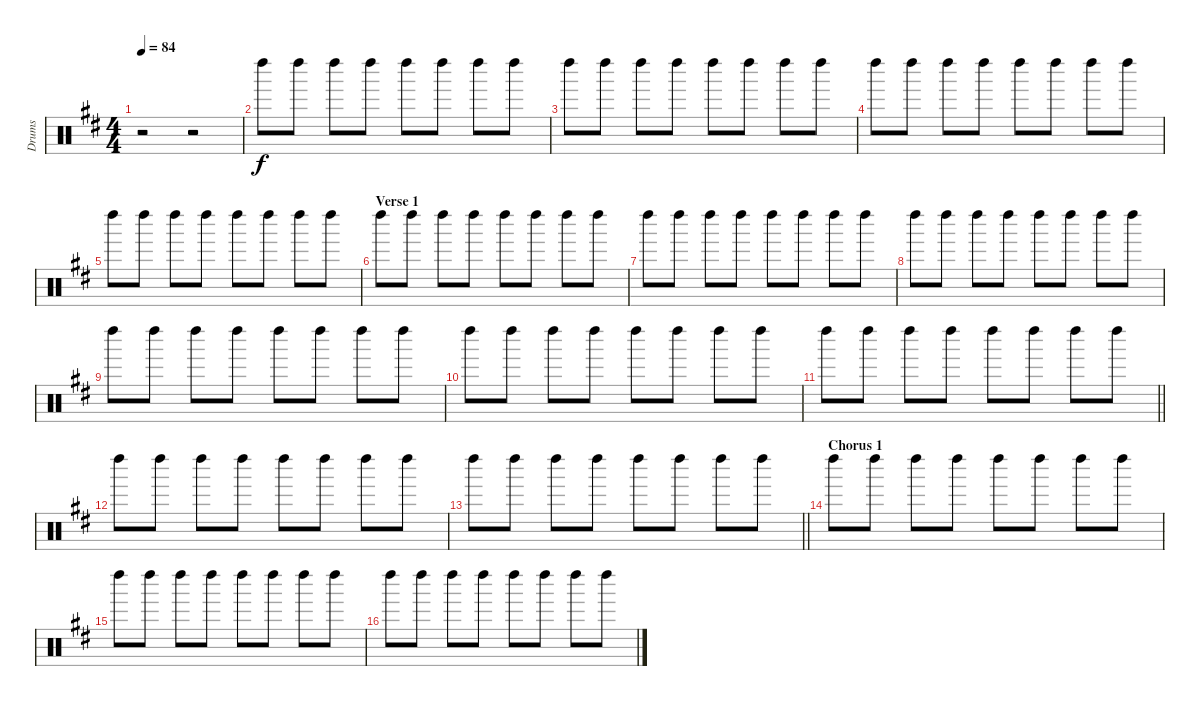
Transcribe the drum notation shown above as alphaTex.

\track ("Drums" "Drums") {instrument percussion}
\staff {score}
\articulation defaults
\ts (4 4)
\tempo 84
\clef neutral
\ks d
r.2{dy f volume 0} r.2{volume 4} |
"Left Maraca (hit)".8 "Left Maraca (hit)".8 "Left Maraca (hit)".8 "Left Maraca (hit)".8 "Left Maraca (hit)".8 "Left Maraca (hit)".8 "Left Maraca (hit)".8 "Left Maraca (hit)".8 |
"Left Maraca (hit)".8 "Left Maraca (hit)".8 "Left Maraca (hit)".8 "Left Maraca (hit)".8 "Left Maraca (hit)".8 "Left Maraca (hit)".8 "Left Maraca (hit)".8 "Left Maraca (hit)".8 |
"Left Maraca (hit)".8 "Left Maraca (hit)".8 "Left Maraca (hit)".8 "Left Maraca (hit)".8 "Left Maraca (hit)".8 "Left Maraca (hit)".8 "Left Maraca (hit)".8 "Left Maraca (hit)".8 |
"Left Maraca (hit)".8 "Left Maraca (hit)".8 "Left Maraca (hit)".8 "Left Maraca (hit)".8 "Left Maraca (hit)".8 "Left Maraca (hit)".8 "Left Maraca (hit)".8 "Left Maraca (hit)".8 |
\section ("" "Verse 1")
"Left Maraca (hit)".8 "Left Maraca (hit)".8 "Left Maraca (hit)".8 "Left Maraca (hit)".8 "Left Maraca (hit)".8 "Left Maraca (hit)".8 "Left Maraca (hit)".8 "Left Maraca (hit)".8 |
"Left Maraca (hit)".8 "Left Maraca (hit)".8 "Left Maraca (hit)".8 "Left Maraca (hit)".8 "Left Maraca (hit)".8 "Left Maraca (hit)".8 "Left Maraca (hit)".8 "Left Maraca (hit)".8 |
"Left Maraca (hit)".8 "Left Maraca (hit)".8 "Left Maraca (hit)".8 "Left Maraca (hit)".8 "Left Maraca (hit)".8 "Left Maraca (hit)".8 "Left Maraca (hit)".8 "Left Maraca (hit)".8 |
"Left Maraca (hit)".8 "Left Maraca (hit)".8 "Left Maraca (hit)".8 "Left Maraca (hit)".8 "Left Maraca (hit)".8 "Left Maraca (hit)".8 "Left Maraca (hit)".8 "Left Maraca (hit)".8 |
"Left Maraca (hit)".8 "Left Maraca (hit)".8 "Left Maraca (hit)".8 "Left Maraca (hit)".8 "Left Maraca (hit)".8 "Left Maraca (hit)".8 "Left Maraca (hit)".8 "Left Maraca (hit)".8 |
\barLineRight lightlight "Left Maraca (hit)".8 "Left Maraca (hit)".8 "Left Maraca (hit)".8 "Left Maraca (hit)".8 "Left Maraca (hit)".8 "Left Maraca (hit)".8 "Left Maraca (hit)".8 "Left Maraca (hit)".8
|
"Left Maraca (hit)".8 "Left Maraca (hit)".8 "Left Maraca (hit)".8 "Left Maraca (hit)".8 "Left Maraca (hit)".8 "Left Maraca (hit)".8 "Left Maraca (hit)".8 "Left Maraca (hit)".8 |
\barLineRight lightlight "Left Maraca (hit)".8 "Left Maraca (hit)".8 "Left Maraca (hit)".8 "Left Maraca (hit)".8 "Left Maraca (hit)".8 "Left Maraca (hit)".8 "Left Maraca (hit)".8 "Left Maraca (hit)".8
|
\section ("" "Chorus 1")
"Left Maraca (hit)".8 "Left Maraca (hit)".8 "Left Maraca (hit)".8 "Left Maraca (hit)".8 "Left Maraca (hit)".8 "Left Maraca (hit)".8 "Left Maraca (hit)".8 "Left Maraca (hit)".8 |
"Left Maraca (hit)".8 "Left Maraca (hit)".8 "Left Maraca (hit)".8 "Left Maraca (hit)".8 "Left Maraca (hit)".8 "Left Maraca (hit)".8 "Left Maraca (hit)".8 "Left Maraca (hit)".8 |
"Left Maraca (hit)".8 "Left Maraca (hit)".8 "Left Maraca (hit)".8 "Left Maraca (hit)".8 "Left Maraca (hit)".8 "Left Maraca (hit)".8 "Left Maraca (hit)".8 "Left Maraca (hit)".8
